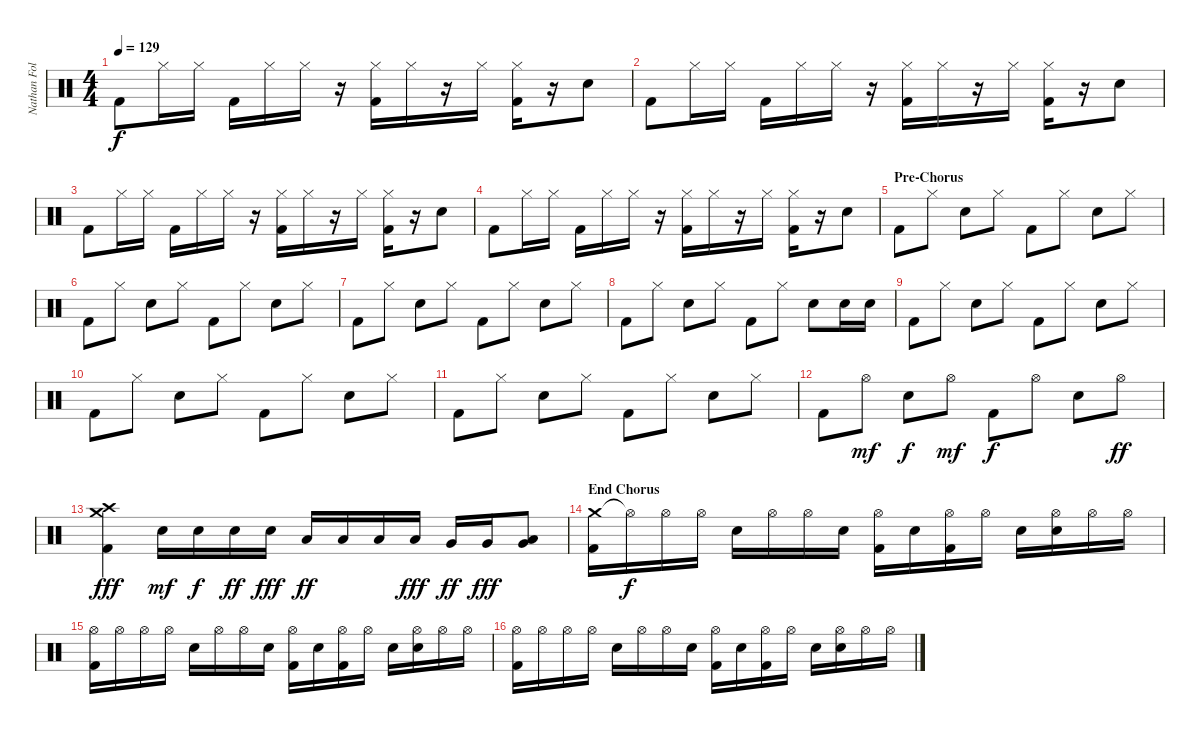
\track ("Nathan Followill" "Nathan Fol") {instrument percussion}
\staff {score}
\articulation defaults
\ts (4 4)
\tempo 129
\clef neutral
\ks c "Kick (hit) 2".8{dy f} "Hi-Hat (closed)".16 "Hi-Hat (closed)".16 "Kick (hit) 2".16 "Hi-Hat (closed)".16 "Hi-Hat (closed)".16
r.16 ("Hi-Hat (closed)" "Kick (hit) 2").16 "Hi-Hat (closed)".16 r.16 "Hi-Hat (closed)".16 ("Hi-Hat (closed)" "Kick (hit) 2").16 r.16 "Electric Snare (hit)".8 |
"Kick (hit) 2".8 "Hi-Hat (closed)".16 "Hi-Hat (closed)".16 "Kick (hit) 2".16 "Hi-Hat (closed)".16 "Hi-Hat (closed)".16 r.16 ("Hi-Hat (closed)" "Kick (hit) 2").16 "Hi-Hat (closed)".16 r.16 "Hi-Hat (closed)".16 ("Hi-Hat (closed)" "Kick (hit) 2").16 r.16 "Electric Snare (hit)".8 |
"Kick (hit) 2".8 "Hi-Hat (closed)".16 "Hi-Hat (closed)".16 "Kick (hit) 2".16 "Hi-Hat (closed)".16 "Hi-Hat (closed)".16 r.16 ("Hi-Hat (closed)" "Kick (hit) 2").16 "Hi-Hat (closed)".16 r.16 "Hi-Hat (closed)".16 ("Hi-Hat (closed)" "Kick (hit) 2").16 r.16 "Electric Snare (hit)".8 |
"Kick (hit) 2".8 "Hi-Hat (closed)".16 "Hi-Hat (closed)".16 "Kick (hit) 2".16 "Hi-Hat (closed)".16 "Hi-Hat (closed)".16 r.16 ("Hi-Hat (closed)" "Kick (hit) 2").16 "Hi-Hat (closed)".16 r.16 "Hi-Hat (closed)".16 ("Hi-Hat (closed)" "Kick (hit) 2").16 r.16 "Electric Snare (hit)".8 |
\section ("" "Pre-Chorus")
"Kick (hit) 2".8 "Hi-Hat (closed)".8 "Electric Snare (hit)".8 "Hi-Hat (closed)".8 "Kick (hit) 2".8 "Hi-Hat (closed)".8 "Electric Snare (hit)".8 "Hi-Hat (closed)".8 |
"Kick (hit) 2".8 "Hi-Hat (closed)".8 "Electric Snare (hit)".8 "Hi-Hat (closed)".8 "Kick (hit) 2".8 "Hi-Hat (closed)".8 "Electric Snare (hit)".8 "Hi-Hat (closed)".8 |
"Kick (hit) 2".8 "Hi-Hat (closed)".8 "Electric Snare (hit)".8 "Hi-Hat (closed)".8 "Kick (hit) 2".8 "Hi-Hat (closed)".8 "Electric Snare (hit)".8 "Hi-Hat (closed)".8 |
"Kick (hit) 2".8 "Hi-Hat (closed)".8 "Electric Snare (hit)".8 "Hi-Hat (closed)".8 "Kick (hit) 2".8 "Hi-Hat (closed)".8 "Electric Snare (hit)".8 "Electric Snare (hit)".16 "Electric Snare (hit)".16 |
"Kick (hit) 2".8 "Hi-Hat (closed)".8 "Electric Snare (hit)".8 "Hi-Hat (closed)".8 "Kick (hit) 2".8 "Hi-Hat (closed)".8 "Electric Snare (hit)".8 "Hi-Hat (closed)".8 |
"Kick (hit) 2".8 "Hi-Hat (closed)".8 "Electric Snare (hit)".8 "Hi-Hat (closed)".8 "Kick (hit) 2".8 "Hi-Hat (closed)".8 "Electric Snare (hit)".8 "Hi-Hat (closed)".8 |
"Kick (hit) 2".8 "Hi-Hat (closed)".8 "Electric Snare (hit)".8 "Hi-Hat (closed)".8 "Kick (hit) 2".8 "Hi-Hat (closed)".8 "Electric Snare (hit)".8 "Hi-Hat (closed)".8 |
"Kick (hit) 2".8 "Hi-Hat (open)".8{dy mf} "Electric Snare (hit)".8{dy f} "Hi-Hat (open)".8{dy mf} "Kick (hit) 2".8{dy f} "Hi-Hat (open)".8 "Electric Snare (hit)".8 "Hi-Hat (open)".8{dy ff} |
("Crash medium (hit)" "Crash high (hit)" "Kick (hit) 2").4{dy fff} "Electric Snare (hit)".16{dy mf} "Electric Snare (hit)".16{dy f} "Electric Snare (hit)".16{dy ff} "Electric Snare (hit)".16{dy fff} "Low Tom (hit)".16{dy ff} "Low Tom (hit)".16 "Low Tom (hit)".16 "Low Tom (hit)".16{dy fff} "Very Low Tom (hit)".16{dy ff} "Very Low Tom (hit)".16{dy fff} ("Low Tom (hit)" "Very Low Tom (hit)").8 |
\section ("" "End Chorus")
("Crash medium (hit)" "Kick (hit) 2").16 "Hi-Hat (open)"{t}.16{dy f} "Hi-Hat (open)".16 "Hi-Hat (open)".16 "Electric Snare (hit)".16 "Hi-Hat (open)".16 "Hi-Hat (open)".16 "Electric Snare (hit)".16 ("Hi-Hat (open)" "Kick (hit) 2").16 "Electric Snare (hit)".16 ("Hi-Hat (open)" "Kick (hit) 2").16 "Hi-Hat (open)".16 "Electric Snare (hit)".16 ("Hi-Hat (open)" "Electric Snare (hit)").16 "Hi-Hat (open)".16 "Hi-Hat (open)".16 |
("Hi-Hat (open)" "Kick (hit) 2").16 "Hi-Hat (open)".16 "Hi-Hat (open)".16 "Hi-Hat (open)".16 "Electric Snare (hit)".16 "Hi-Hat (open)".16 "Hi-Hat (open)".16 "Electric Snare (hit)".16 ("Hi-Hat (open)" "Kick (hit) 2").16 "Electric Snare (hit)".16 ("Hi-Hat (open)" "Kick (hit) 2").16 "Hi-Hat (open)".16 "Electric Snare (hit)".16 ("Hi-Hat (open)" "Electric Snare (hit)").16 "Hi-Hat (open)".16 "Hi-Hat (open)".16 |
("Hi-Hat (open)" "Kick (hit) 2").16 "Hi-Hat (open)".16 "Hi-Hat (open)".16 "Hi-Hat (open)".16 "Electric Snare (hit)".16 "Hi-Hat (open)".16 "Hi-Hat (open)".16 "Electric Snare (hit)".16 ("Hi-Hat (open)" "Kick (hit) 2").16 "Electric Snare (hit)".16 ("Hi-Hat (open)" "Kick (hit) 2").16 "Hi-Hat (open)".16 "Electric Snare (hit)".16 ("Hi-Hat (open)" "Electric Snare (hit)").16 "Hi-Hat (open)".16 "Hi-Hat (open)".16
